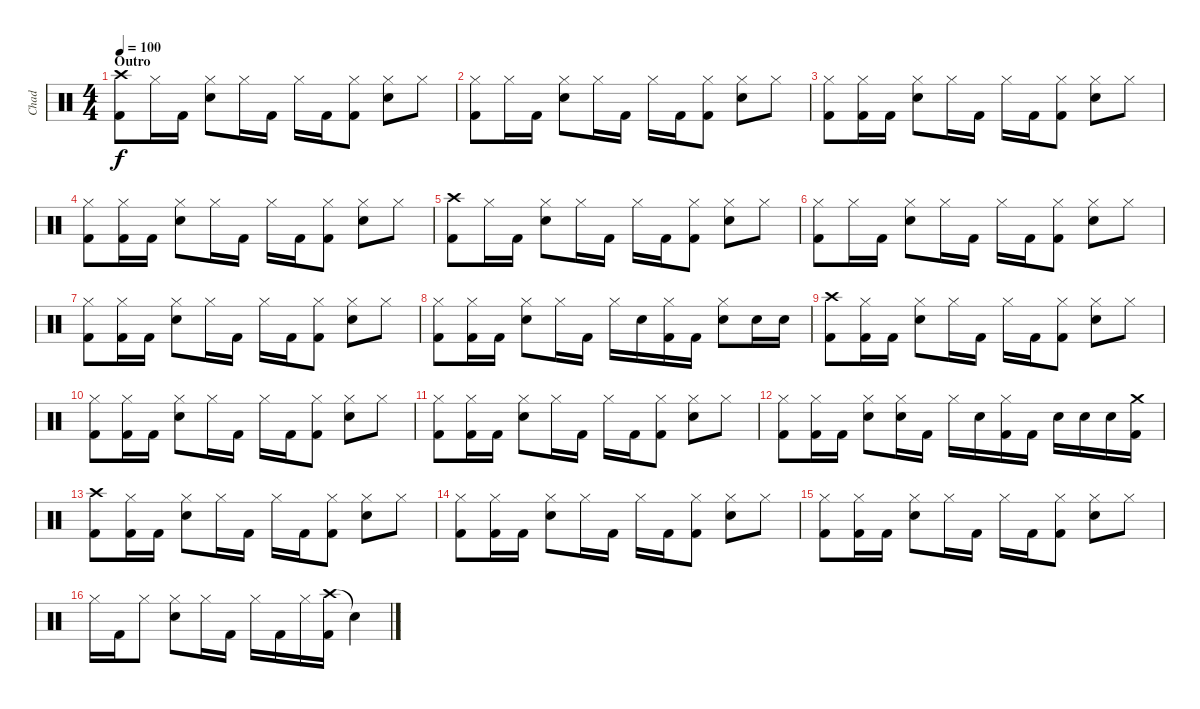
\track ("Chad" "Chad") {instrument percussion}
\staff {score}
\articulation defaults
\ts (4 4)
\section ("" "Outro")
\tempo 100
\clef neutral
\ks c
("Crash high (hit)" "Kick (hit) 2").8{dy f} "Hi-Hat (closed)".16 "Kick (hit) 2".16 ("Hi-Hat (closed)" "Electric Snare (hit)").8 "Hi-Hat (closed)".16 "Kick (hit) 2".16 "Hi-Hat (closed)".16 "Kick (hit) 2".16 ("Hi-Hat (closed)" "Kick (hit) 2").8 ("Hi-Hat (closed)" "Electric Snare (hit)").8 "Hi-Hat (closed)".8 |
("Hi-Hat (closed)" "Kick (hit) 2").8 "Hi-Hat (closed)".16 "Kick (hit) 2".16 ("Hi-Hat (closed)" "Electric Snare (hit)").8 "Hi-Hat (closed)".16 "Kick (hit) 2".16 "Hi-Hat (closed)".16 "Kick (hit) 2".16 ("Hi-Hat (closed)" "Kick (hit) 2").8 ("Hi-Hat (closed)" "Electric Snare (hit)").8 "Hi-Hat (closed)".8 |
("Hi-Hat (closed)" "Kick (hit) 2").8 ("Hi-Hat (closed)" "Kick (hit) 2").16 "Kick (hit) 2".16 ("Hi-Hat (closed)" "Electric Snare (hit)").8 "Hi-Hat (closed)".16 "Kick (hit) 2".16 "Hi-Hat (closed)".16 "Kick (hit) 2".16 ("Hi-Hat (closed)" "Kick (hit) 2").8 ("Hi-Hat (closed)" "Electric Snare (hit)").8 "Hi-Hat (closed)".8 |
("Hi-Hat (closed)" "Kick (hit) 2").8 ("Hi-Hat (closed)" "Kick (hit) 2").16 "Kick (hit) 2".16 ("Hi-Hat (closed)" "Electric Snare (hit)").8 "Hi-Hat (closed)".16 "Kick (hit) 2".16 "Hi-Hat (closed)".16 "Kick (hit) 2".16 ("Hi-Hat (closed)" "Kick (hit) 2").8 ("Hi-Hat (closed)" "Electric Snare (hit)").8 "Hi-Hat (closed)".8 |
("Crash high (hit)" "Kick (hit) 2").8 "Hi-Hat (closed)".16 "Kick (hit) 2".16 ("Hi-Hat (closed)" "Electric Snare (hit)").8 "Hi-Hat (closed)".16 "Kick (hit) 2".16 "Hi-Hat (closed)".16 "Kick (hit) 2".16 ("Hi-Hat (closed)" "Kick (hit) 2").8 ("Hi-Hat (closed)" "Electric Snare (hit)").8 "Hi-Hat (closed)".8 |
("Hi-Hat (closed)" "Kick (hit) 2").8 "Hi-Hat (closed)".16 "Kick (hit) 2".16 ("Hi-Hat (closed)" "Electric Snare (hit)").8 "Hi-Hat (closed)".16 "Kick (hit) 2".16 "Hi-Hat (closed)".16 "Kick (hit) 2".16 ("Hi-Hat (closed)" "Kick (hit) 2").8 ("Hi-Hat (closed)" "Electric Snare (hit)").8 "Hi-Hat (closed)".8 |
("Hi-Hat (closed)" "Kick (hit) 2").8 ("Hi-Hat (closed)" "Kick (hit) 2").16 "Kick (hit) 2".16 ("Hi-Hat (closed)" "Electric Snare (hit)").8 "Hi-Hat (closed)".16 "Kick (hit) 2".16 "Hi-Hat (closed)".16 "Kick (hit) 2".16 ("Hi-Hat (closed)" "Kick (hit) 2").8 ("Hi-Hat (closed)" "Electric Snare (hit)").8 "Hi-Hat (closed)".8 |
("Hi-Hat (closed)" "Kick (hit) 2").8 ("Hi-Hat (closed)" "Kick (hit) 2").16 "Kick (hit) 2".16 ("Hi-Hat (closed)" "Electric Snare (hit)").8 "Hi-Hat (closed)".16 "Kick (hit) 2".16 "Hi-Hat (closed)".16 "Electric Snare (hit)".16 ("Hi-Hat (closed)" "Kick (hit) 2").16 "Kick (hit) 2".16 ("Hi-Hat (closed)" "Electric Snare (hit)").8 "Electric Snare (hit)".16 "Electric Snare (hit)".16 |
("Crash high (hit)" "Kick (hit) 2").8 ("Hi-Hat (closed)" "Kick (hit) 2").16 "Kick (hit) 2".16 ("Hi-Hat (closed)" "Electric Snare (hit)").8 "Hi-Hat (closed)".16 "Kick (hit) 2".16 "Hi-Hat (closed)".16 "Kick (hit) 2".16 ("Hi-Hat (closed)" "Kick (hit) 2").8 ("Hi-Hat (closed)" "Electric Snare (hit)").8 "Hi-Hat (closed)".8 |
("Hi-Hat (closed)" "Kick (hit) 2").8 ("Hi-Hat (closed)" "Kick (hit) 2").16 "Kick (hit) 2".16 ("Hi-Hat (closed)" "Electric Snare (hit)").8 "Hi-Hat (closed)".16 "Kick (hit) 2".16 "Hi-Hat (closed)".16 "Kick (hit) 2".16 ("Hi-Hat (closed)" "Kick (hit) 2").8 ("Hi-Hat (closed)" "Electric Snare (hit)").8 "Hi-Hat (closed)".8 |
("Hi-Hat (closed)" "Kick (hit) 2").8 ("Hi-Hat (closed)" "Kick (hit) 2").16 "Kick (hit) 2".16 ("Hi-Hat (closed)" "Electric Snare (hit)").8 "Hi-Hat (closed)".16 "Kick (hit) 2".16 "Hi-Hat (closed)".16 "Kick (hit) 2".16 ("Hi-Hat (closed)" "Kick (hit) 2").8 ("Hi-Hat (closed)" "Electric Snare (hit)").8 "Hi-Hat (closed)".8 |
("Hi-Hat (closed)" "Kick (hit) 2").8 ("Hi-Hat (closed)" "Kick (hit) 2").16 "Kick (hit) 2".16 ("Hi-Hat (closed)" "Electric Snare (hit)").8 ("Hi-Hat (closed)" "Electric Snare (hit)").16 "Kick (hit) 2".16 "Hi-Hat (closed)".16 "Electric Snare (hit)".16 ("Hi-Hat (closed)" "Kick (hit) 2").16 "Kick (hit) 2".16 "Electric Snare (hit)".16 "Electric Snare (hit)".16 "Electric Snare (hit)".16 ("Crash medium (hit)" "Kick (hit) 2").16 |
("Crash high (hit)" "Kick (hit) 2").8 ("Hi-Hat (closed)" "Kick (hit) 2").16 "Kick (hit) 2".16 ("Hi-Hat (closed)" "Electric Snare (hit)").8 "Hi-Hat (closed)".16 "Kick (hit) 2".16 "Hi-Hat (closed)".16 "Kick (hit) 2".16 ("Hi-Hat (closed)" "Kick (hit) 2").8 ("Hi-Hat (closed)" "Electric Snare (hit)").8 "Hi-Hat (closed)".8 |
("Hi-Hat (closed)" "Kick (hit) 2").8 ("Hi-Hat (closed)" "Kick (hit) 2").16 "Kick (hit) 2".16 ("Hi-Hat (closed)" "Electric Snare (hit)").8 "Hi-Hat (closed)".16 "Kick (hit) 2".16 "Hi-Hat (closed)".16 "Kick (hit) 2".16 ("Hi-Hat (closed)" "Kick (hit) 2").8 ("Hi-Hat (closed)" "Electric Snare (hit)").8 "Hi-Hat (closed)".8 |
("Hi-Hat (closed)" "Kick (hit) 2").8 ("Hi-Hat (closed)" "Kick (hit) 2").16 "Kick (hit) 2".16 ("Hi-Hat (closed)" "Electric Snare (hit)").8 "Hi-Hat (closed)".16 "Kick (hit) 2".16 "Hi-Hat (closed)".16 "Kick (hit) 2".16 ("Hi-Hat (closed)" "Kick (hit) 2").8 ("Hi-Hat (closed)" "Electric Snare (hit)").8 "Hi-Hat (closed)".8 |
"Hi-Hat (closed)".16 "Kick (hit) 2".16 "Hi-Hat (closed)".8 ("Hi-Hat (closed)" "Electric Snare (hit)").8 "Hi-Hat (closed)".16 "Kick (hit) 2".16 "Hi-Hat (closed)".16 "Kick (hit) 2".16 "Hi-Hat (closed)".16 ("Crash high (hit)" "Kick (hit) 2").16 "Snare (hit)"{t}.4
